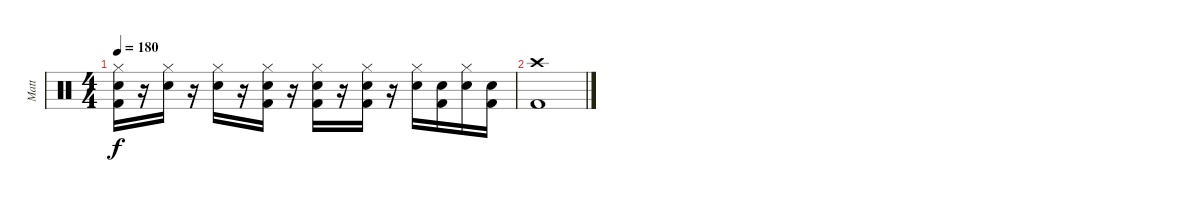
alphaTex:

\track ("Matt" "Matt") {instrument percussion}
\staff {score}
\articulation defaults
\ts (4 4)
\tempo 180
\clef neutral
\ks c
("Hi-Hat (closed)" "Snare (hit) 2" "Kick (hit) 2").16{dy f} r.16 ("Hi-Hat (closed)" "Snare (hit) 2").16 r.16 ("Hi-Hat (closed)" "Snare (hit) 2").16 r.16 ("Hi-Hat (closed)" "Snare (hit) 2" "Kick (hit) 2").16 r.16 ("Hi-Hat (closed)" "Snare (hit) 2" "Kick (hit) 2").16 r.16 ("Hi-Hat (closed)" "Snare (hit) 2" "Kick (hit) 2").16 r.16 ("Hi-Hat (closed)" "Snare (hit) 2").16 ("Snare (hit) 2" "Kick (hit) 2").16 ("Hi-Hat (closed)" "Snare (hit) 2").16 ("Snare (hit) 2" "Kick (hit) 2").16 |
("Crash high (hit)" "Kick (hit) 2").1
